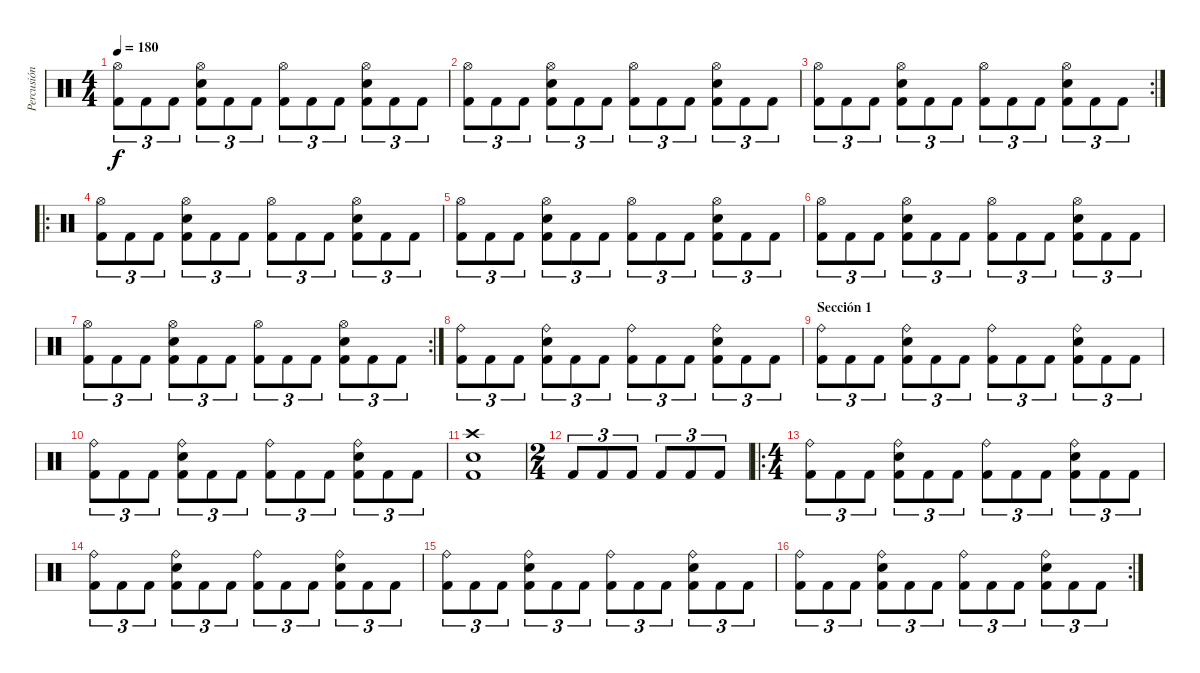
\track ("Percusión" "Percusión") {instrument percussion}
\staff {score}
\articulation defaults
\ts (4 4)
\tempo 180
\clef neutral
\ks c
("Hi-Hat (open)" "Kick (hit) 2").8{tu (3 2) dy f} "Kick (hit) 2".8{tu (3 2)} "Kick (hit) 2".8{tu (3 2)} ("Hi-Hat (open)" "Snare (hit) 2" "Kick (hit) 2").8{tu (3 2)} "Kick (hit) 2".8{tu (3 2)} "Kick (hit) 2".8{tu (3 2)} ("Hi-Hat (open)" "Kick (hit) 2").8{tu (3 2)} "Kick (hit) 2".8{tu (3 2)} "Kick (hit) 2".8{tu (3 2)} ("Hi-Hat (open)" "Snare (hit) 2" "Kick (hit) 2").8{tu (3 2)} "Kick (hit) 2".8{tu (3 2)} "Kick (hit) 2".8{tu (3 2)} |
("Hi-Hat (open)" "Kick (hit) 2").8{tu (3 2)} "Kick (hit) 2".8{tu (3 2)} "Kick (hit) 2".8{tu (3 2)} ("Hi-Hat (open)" "Snare (hit) 2" "Kick (hit) 2").8{tu (3 2)} "Kick (hit) 2".8{tu (3 2)} "Kick (hit) 2".8{tu (3 2)} ("Hi-Hat (open)" "Kick (hit) 2").8{tu (3 2)} "Kick (hit) 2".8{tu (3 2)} "Kick (hit) 2".8{tu (3 2)} ("Hi-Hat (open)" "Snare (hit) 2" "Kick (hit) 2").8{tu (3 2)} "Kick (hit) 2".8{tu (3 2)} "Kick (hit) 2".8{tu (3 2)} |
\rc 2
("Hi-Hat (open)" "Kick (hit) 2").8{tu (3 2)} "Kick (hit) 2".8{tu (3 2)} "Kick (hit) 2".8{tu (3 2)} ("Hi-Hat (open)" "Snare (hit) 2" "Kick (hit) 2").8{tu (3 2)} "Kick (hit) 2".8{tu (3 2)} "Kick (hit) 2".8{tu (3 2)} ("Hi-Hat (open)" "Kick (hit) 2").8{tu (3 2)} "Kick (hit) 2".8{tu (3 2)} "Kick (hit) 2".8{tu (3 2)} ("Hi-Hat (open)" "Snare (hit) 2" "Kick (hit) 2").8{tu (3 2)} "Kick (hit) 2".8{tu (3 2)} "Kick (hit) 2".8{tu (3 2)} |
\ro
("Hi-Hat (open)" "Kick (hit) 2").8{tu (3 2)} "Kick (hit) 2".8{tu (3 2)} "Kick (hit) 2".8{tu (3 2)} ("Hi-Hat (open)" "Snare (hit) 2" "Kick (hit) 2").8{tu (3 2)} "Kick (hit) 2".8{tu (3 2)} "Kick (hit) 2".8{tu (3 2)} ("Hi-Hat (open)" "Kick (hit) 2").8{tu (3 2)} "Kick (hit) 2".8{tu (3 2)} "Kick (hit) 2".8{tu (3 2)} ("Hi-Hat (open)" "Snare (hit) 2" "Kick (hit) 2").8{tu (3 2)} "Kick (hit) 2".8{tu (3 2)} "Kick (hit) 2".8{tu (3 2)} |
("Hi-Hat (open)" "Kick (hit) 2").8{tu (3 2)} "Kick (hit) 2".8{tu (3 2)} "Kick (hit) 2".8{tu (3 2)} ("Hi-Hat (open)" "Snare (hit) 2" "Kick (hit) 2").8{tu (3 2)} "Kick (hit) 2".8{tu (3 2)} "Kick (hit) 2".8{tu (3 2)} ("Hi-Hat (open)" "Kick (hit) 2").8{tu (3 2)} "Kick (hit) 2".8{tu (3 2)} "Kick (hit) 2".8{tu (3 2)} ("Hi-Hat (open)" "Snare (hit) 2" "Kick (hit) 2").8{tu (3 2)} "Kick (hit) 2".8{tu (3 2)} "Kick (hit) 2".8{tu (3 2)} |
("Hi-Hat (open)" "Kick (hit) 2").8{tu (3 2)} "Kick (hit) 2".8{tu (3 2)} "Kick (hit) 2".8{tu (3 2)} ("Hi-Hat (open)" "Snare (hit) 2" "Kick (hit) 2").8{tu (3 2)} "Kick (hit) 2".8{tu (3 2)} "Kick (hit) 2".8{tu (3 2)} ("Hi-Hat (open)" "Kick (hit) 2").8{tu (3 2)} "Kick (hit) 2".8{tu (3 2)} "Kick (hit) 2".8{tu (3 2)} ("Hi-Hat (open)" "Snare (hit) 2" "Kick (hit) 2").8{tu (3 2)} "Kick (hit) 2".8{tu (3 2)} "Kick (hit) 2".8{tu (3 2)} |
\rc 2
("Hi-Hat (open)" "Kick (hit) 2").8{tu (3 2)} "Kick (hit) 2".8{tu (3 2)} "Kick (hit) 2".8{tu (3 2)} ("Hi-Hat (open)" "Snare (hit) 2" "Kick (hit) 2").8{tu (3 2)} "Kick (hit) 2".8{tu (3 2)} "Kick (hit) 2".8{tu (3 2)} ("Hi-Hat (open)" "Kick (hit) 2").8{tu (3 2)} "Kick (hit) 2".8{tu (3 2)} "Kick (hit) 2".8{tu (3 2)} ("Hi-Hat (open)" "Snare (hit) 2" "Kick (hit) 2").8{tu (3 2)} "Kick (hit) 2".8{tu (3 2)} "Kick (hit) 2".8{tu (3 2)} |
("Ride (bell)" "Kick (hit) 2").8{tu (3 2)} "Kick (hit) 2".8{tu (3 2)} "Kick (hit) 2".8{tu (3 2)} ("Ride (bell)" "Snare (hit) 2" "Kick (hit) 2").8{tu (3 2)} "Kick (hit) 2".8{tu (3 2)} "Kick (hit) 2".8{tu (3 2)} ("Ride (bell)" "Kick (hit) 2").8{tu (3 2)} "Kick (hit) 2".8{tu (3 2)} "Kick (hit) 2".8{tu (3 2)} ("Ride (bell)" "Snare (hit) 2" "Kick (hit) 2").8{tu (3 2)} "Kick (hit) 2".8{tu (3 2)} "Kick (hit) 2".8{tu (3 2)} |
\section ("" "Sección 1")
("Ride (bell)" "Kick (hit) 2").8{tu (3 2)} "Kick (hit) 2".8{tu (3 2)} "Kick (hit) 2".8{tu (3 2)} ("Ride (bell)" "Snare (hit) 2" "Kick (hit) 2").8{tu (3 2)} "Kick (hit) 2".8{tu (3 2)} "Kick (hit) 2".8{tu (3 2)} ("Ride (bell)" "Kick (hit) 2").8{tu (3 2)} "Kick (hit) 2".8{tu (3 2)} "Kick (hit) 2".8{tu (3 2)} ("Ride (bell)" "Snare (hit) 2" "Kick (hit) 2").8{tu (3 2)} "Kick (hit) 2".8{tu (3 2)} "Kick (hit) 2".8{tu (3 2)} |
("Ride (bell)" "Kick (hit) 2").8{tu (3 2)} "Kick (hit) 2".8{tu (3 2)} "Kick (hit) 2".8{tu (3 2)} ("Ride (bell)" "Snare (hit) 2" "Kick (hit) 2").8{tu (3 2)} "Kick (hit) 2".8{tu (3 2)} "Kick (hit) 2".8{tu (3 2)} ("Ride (bell)" "Kick (hit) 2").8{tu (3 2)} "Kick (hit) 2".8{tu (3 2)} "Kick (hit) 2".8{tu (3 2)} ("Ride (bell)" "Snare (hit) 2" "Kick (hit) 2").8{tu (3 2)} "Kick (hit) 2".8{tu (3 2)} "Kick (hit) 2".8{tu (3 2)} |
("Crash high (hit)" "Snare (hit) 2" "Kick (hit) 2").1 |
\ts (2 4)
"Kick (hit) 2".8{tu (3 2)} "Kick (hit) 2".8{tu (3 2)} "Kick (hit) 2".8{tu (3 2)} "Kick (hit) 2".8{tu (3 2)} "Kick (hit) 2".8{tu (3 2)} "Kick (hit) 2".8{tu (3 2)} |
\ro
\ts (4 4)
("Ride (bell)" "Kick (hit) 2").8{tu (3 2)} "Kick (hit) 2".8{tu (3 2)} "Kick (hit) 2".8{tu (3 2)} ("Ride (bell)" "Snare (hit) 2" "Kick (hit) 2").8{tu (3 2)} "Kick (hit) 2".8{tu (3 2)} "Kick (hit) 2".8{tu (3 2)} ("Ride (bell)" "Kick (hit) 2").8{tu (3 2)} "Kick (hit) 2".8{tu (3 2)} "Kick (hit) 2".8{tu (3 2)} ("Ride (bell)" "Snare (hit) 2" "Kick (hit) 2").8{tu (3 2)} "Kick (hit) 2".8{tu (3 2)} "Kick (hit) 2".8{tu (3 2)} |
("Ride (bell)" "Kick (hit) 2").8{tu (3 2)} "Kick (hit) 2".8{tu (3 2)} "Kick (hit) 2".8{tu (3 2)} ("Ride (bell)" "Snare (hit) 2" "Kick (hit) 2").8{tu (3 2)} "Kick (hit) 2".8{tu (3 2)} "Kick (hit) 2".8{tu (3 2)} ("Ride (bell)" "Kick (hit) 2").8{tu (3 2)} "Kick (hit) 2".8{tu (3 2)} "Kick (hit) 2".8{tu (3 2)} ("Ride (bell)" "Snare (hit) 2" "Kick (hit) 2").8{tu (3 2)} "Kick (hit) 2".8{tu (3 2)} "Kick (hit) 2".8{tu (3 2)} |
("Ride (bell)" "Kick (hit) 2").8{tu (3 2)} "Kick (hit) 2".8{tu (3 2)} "Kick (hit) 2".8{tu (3 2)} ("Ride (bell)" "Snare (hit) 2" "Kick (hit) 2").8{tu (3 2)} "Kick (hit) 2".8{tu (3 2)} "Kick (hit) 2".8{tu (3 2)} ("Ride (bell)" "Kick (hit) 2").8{tu (3 2)} "Kick (hit) 2".8{tu (3 2)} "Kick (hit) 2".8{tu (3 2)} ("Ride (bell)" "Snare (hit) 2" "Kick (hit) 2").8{tu (3 2)} "Kick (hit) 2".8{tu (3 2)} "Kick (hit) 2".8{tu (3 2)} |
\rc 2
("Ride (bell)" "Kick (hit) 2").8{tu (3 2)} "Kick (hit) 2".8{tu (3 2)} "Kick (hit) 2".8{tu (3 2)} ("Ride (bell)" "Snare (hit) 2" "Kick (hit) 2").8{tu (3 2)} "Kick (hit) 2".8{tu (3 2)} "Kick (hit) 2".8{tu (3 2)} ("Ride (bell)" "Kick (hit) 2").8{tu (3 2)} "Kick (hit) 2".8{tu (3 2)} "Kick (hit) 2".8{tu (3 2)} ("Ride (bell)" "Snare (hit) 2" "Kick (hit) 2").8{tu (3 2)} "Kick (hit) 2".8{tu (3 2)} "Kick (hit) 2".8{tu (3 2)}
